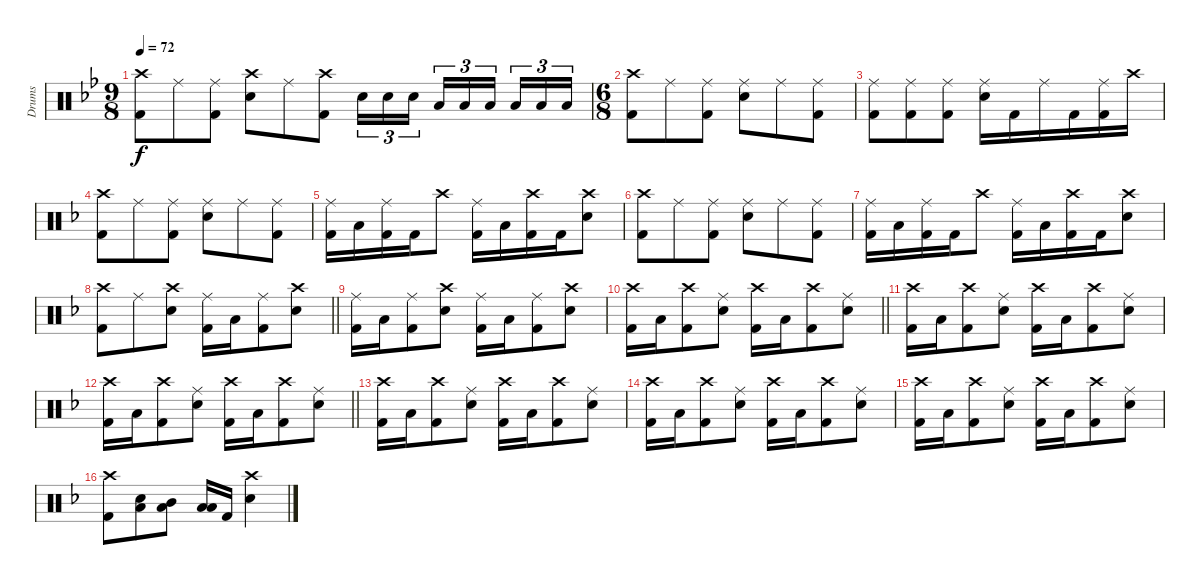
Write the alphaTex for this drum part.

\track ("Drums" "Drums") {instrument percussion}
\staff {score}
\articulation defaults
\ts (9 8)
\tempo 72
\clef neutral
\ks bb
("Crash high (hit)" "Kick (hit) 2").8{dy f} "Ride (middle)".8 ("Ride (middle)" "Kick (hit) 2").8 ("Crash high (hit)" "Electric Snare (hit)").8 "Ride (middle)".8 ("Crash high (hit)" "Kick (hit) 2").8 "Electric Snare (hit)".16{tu (3 2)} "Electric Snare (hit)".16{tu (3 2)} "Electric Snare (hit)".16{tu (3 2) beam splitsecondary} "Low Tom (hit)".16{tu (3 2)} "Low Tom (hit)".16{tu (3 2)} "Low Tom (hit)".16{tu (3 2) beam splitsecondary} "Low Floor Tom (hit)".16{tu (3 2)} "Low Floor Tom (hit)".16{tu (3 2)} "Low Floor Tom (hit)".16{tu (3 2)} |
\ts (6 8)
("Crash high (hit)" "Kick (hit) 2").8 "Ride (middle)".8 ("Ride (middle)" "Kick (hit) 2").8 ("Ride (middle)" "Electric Snare (hit)").8 "Ride (middle)".8 ("Ride (middle)" "Kick (hit) 2").8 |
("Ride (middle)" "Kick (hit) 2").8 ("Ride (middle)" "Kick (hit) 2").8 ("Ride (middle)" "Kick (hit) 2").8 ("Ride (middle)" "Electric Snare (hit)").16 "Kick (hit) 2".16 "Ride (middle)".16 "Kick (hit) 2".16 ("Ride (middle)" "Kick (hit) 2").16 "Crash high (hit)".16 |
\ks f
("Crash high (hit)" "Kick (hit) 2").8 "Ride (middle)".8 ("Ride (middle)" "Kick (hit) 2").8 ("Ride (middle)" "Electric Snare (hit)").8 "Ride (middle)".8 ("Ride (middle)" "Kick (hit) 2").8 |
("Ride (middle)" "Kick (hit) 2").16 "Low Tom (hit)".16 ("Ride (middle)" "Kick (hit) 2").16 "Kick (hit) 2".16 "Crash high (hit)".8 ("Ride (middle)" "Kick (hit) 2").16 "Low Tom (hit)".16 ("Crash high (hit)" "Kick (hit) 2").16 "Kick (hit) 2".16 ("Crash high (hit)" "Electric Snare (hit)").8 |
("Crash high (hit)" "Kick (hit) 2").8 "Ride (middle)".8 ("Ride (middle)" "Kick (hit) 2").8 ("Ride (middle)" "Electric Snare (hit)").8 "Ride (middle)".8 ("Ride (middle)" "Kick (hit) 2").8 |
("Ride (middle)" "Kick (hit) 2").16 "Low Tom (hit)".16 ("Ride (middle)" "Kick (hit) 2").16 "Kick (hit) 2".16 "Crash high (hit)".8 ("Ride (middle)" "Kick (hit) 2").16 "Low Tom (hit)".16 ("Crash high (hit)" "Kick (hit) 2").16 "Kick (hit) 2".16 ("Crash high (hit)" "Electric Snare (hit)").8 |
\barLineRight lightlight
("Crash high (hit)" "Kick (hit) 2").8 "Ride (middle)".8 ("Crash high (hit)" "Electric Snare (hit)").8 ("Ride (middle)" "Kick (hit) 2").16 "Low Tom (hit)".16 ("Ride (middle)" "Kick (hit) 2").8 ("Crash high (hit)" "Electric Snare (hit)").8 |
("Ride (middle)" "Kick (hit) 2").16 "Low Tom (hit)".16 ("Ride (middle)" "Kick (hit) 2").8 ("Crash high (hit)" "Electric Snare (hit)").8 ("Ride (middle)" "Kick (hit) 2").16 "Low Tom (hit)".16 ("Ride (middle)" "Kick (hit) 2").8 ("Crash high (hit)" "Electric Snare (hit)").8 |
\barLineRight lightlight
("Crash high (hit)" "Kick (hit) 2").16 "Low Tom (hit)".16 ("Crash high (hit)" "Kick (hit) 2").8 ("Ride (middle)" "Electric Snare (hit)").8 ("Crash high (hit)" "Kick (hit) 2").16 "Low Tom (hit)".16 ("Crash high (hit)" "Kick (hit) 2").8 ("Ride (middle)" "Electric Snare (hit)").8 |
("Crash high (hit)" "Kick (hit) 2").16 "Low Tom (hit)".16 ("Crash high (hit)" "Kick (hit) 2").8 ("Ride (middle)" "Electric Snare (hit)").8 ("Crash high (hit)" "Kick (hit) 2").16 "Low Tom (hit)".16 ("Crash high (hit)" "Kick (hit) 2").8 ("Ride (middle)" "Electric Snare (hit)").8 |
\barLineRight lightlight
("Crash high (hit)" "Kick (hit) 2").16 "Low Tom (hit)".16 ("Crash high (hit)" "Kick (hit) 2").8 ("Ride (middle)" "Electric Snare (hit)").8 ("Crash high (hit)" "Kick (hit) 2").16 "Low Tom (hit)".16 ("Crash high (hit)" "Kick (hit) 2").8 ("Ride (middle)" "Electric Snare (hit)").8 |
("Crash high (hit)" "Kick (hit) 2").16 "Low Tom (hit)".16 ("Crash high (hit)" "Kick (hit) 2").8 ("Ride (middle)" "Electric Snare (hit)").8 ("Crash high (hit)" "Kick (hit) 2").16 "Low Tom (hit)".16 ("Crash high (hit)" "Kick (hit) 2").8 ("Ride (middle)" "Electric Snare (hit)").8 |
("Crash high (hit)" "Kick (hit) 2").16 "Low Tom (hit)".16 ("Crash high (hit)" "Kick (hit) 2").8 ("Ride (middle)" "Electric Snare (hit)").8 ("Crash high (hit)" "Kick (hit) 2").16 "Low Tom (hit)".16 ("Crash high (hit)" "Kick (hit) 2").8 ("Ride (middle)" "Electric Snare (hit)").8 |
("Crash high (hit)" "Kick (hit) 2").16 "Low Tom (hit)".16 ("Crash high (hit)" "Kick (hit) 2").8 ("Ride (middle)" "Electric Snare (hit)").8 ("Crash high (hit)" "Kick (hit) 2").16 "Low Tom (hit)".16 ("Crash high (hit)" "Kick (hit) 2").8 ("Ride (middle)" "Electric Snare (hit)").8 |
("Crash high (hit)" "Kick (hit) 2").8 ("Low Floor Tom (hit)" "Electric Snare (hit)").8 ("Mid Tom (hit)" "Low Floor Tom (hit)").8 ("Low Tom (hit)" "Low Floor Tom (hit)").16 "Kick (hit) 2".16 ("Crash high (hit)" "Electric Snare (hit)").4
